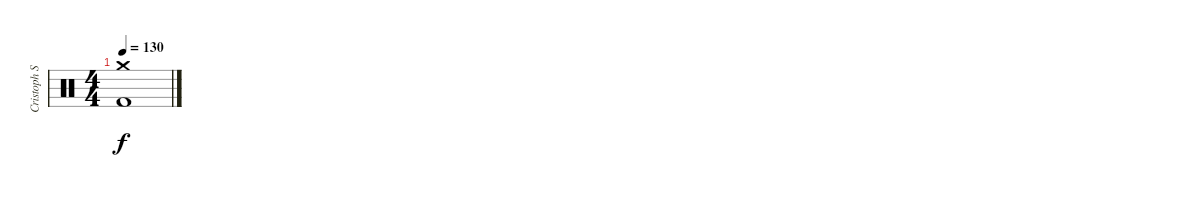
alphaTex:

\track ("Cristoph Schneider" "Cristoph S") {instrument percussion}
\staff {score}
\articulation defaults
\ts (4 4)
\tempo 130
\clef neutral
\ks c
("Crash medium (hit)" "Kick (hit) 2").1{dy f}
